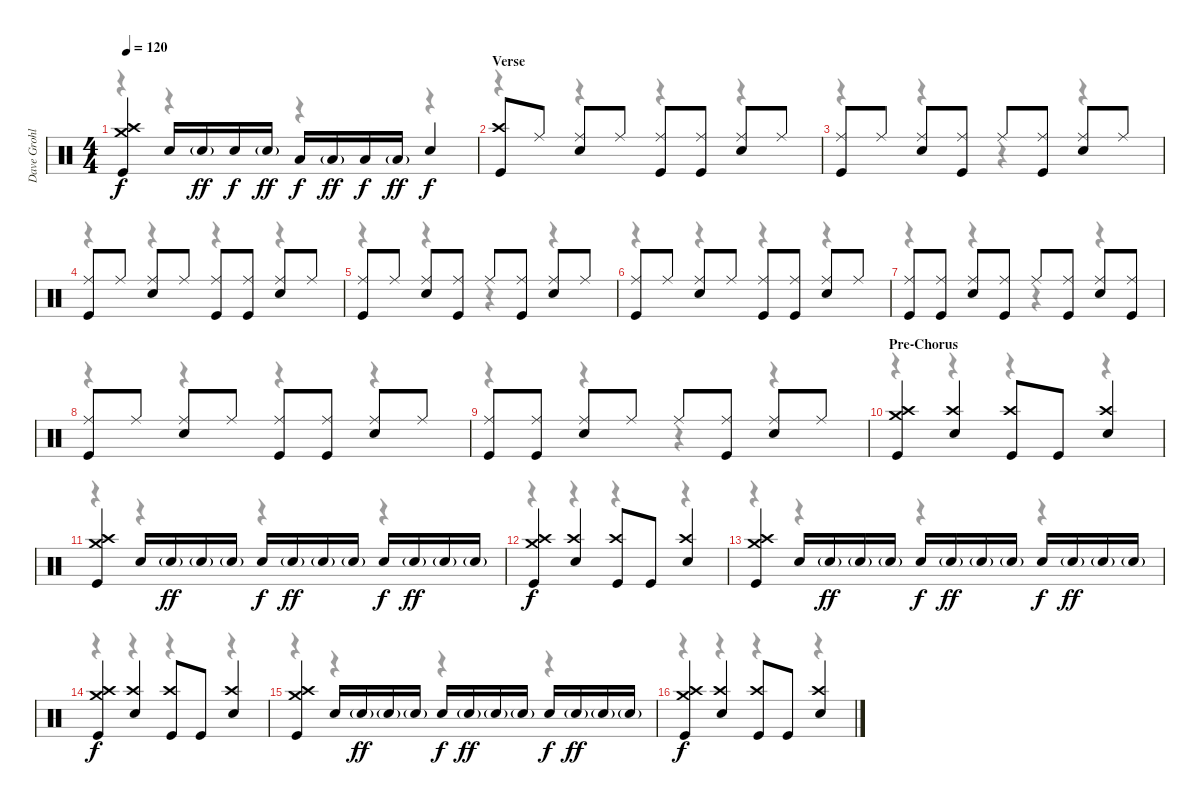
\track ("Dave Grohl" "Dave Grohl") {instrument percussion}
\staff {score}
\articulation defaults
\voice
\ts (4 4)
\tempo 120
\clef neutral
\ks c
("Crash medium (hit)" "Crash high (hit)" "Kick (hit)").4{dy f} "Snare (hit) 2".16 "Snare (hit) 2"{g}.16{dy ff} "Snare (hit) 2".16{dy f} "Snare (hit) 2"{g}.16{dy ff} "Low Tom (hit)".16{dy f} "Low Tom (hit)"{g}.16{dy ff} "Low Tom (hit)".16{dy f} "Low Tom (hit)"{g}.16{dy ff} "Snare (hit) 2".4{dy f} |
\section ("" "Verse")
("Crash high (hit)" "Kick (hit)").8 "Ride (middle)".8 ("Ride (middle)" "Snare (hit) 2").8 "Ride (middle)".8 ("Ride (middle)" "Kick (hit)").8 ("Ride (middle)" "Kick (hit)").8 ("Ride (middle)" "Snare (hit) 2").8 "Ride (middle)".8 |
("Ride (middle)" "Kick (hit)").8 "Ride (middle)".8 ("Ride (middle)" "Snare (hit) 2").8 ("Ride (middle)" "Kick (hit)").8 "Ride (middle)".8 ("Ride (middle)" "Kick (hit)").8 ("Ride (middle)" "Snare (hit) 2").8 "Ride (middle)".8 |
("Ride (middle)" "Kick (hit)").8 "Ride (middle)".8 ("Ride (middle)" "Snare (hit) 2").8 "Ride (middle)".8 ("Ride (middle)" "Kick (hit)").8 ("Ride (middle)" "Kick (hit)").8 ("Ride (middle)" "Snare (hit) 2").8 "Ride (middle)".8 |
("Ride (middle)" "Kick (hit)").8 "Ride (middle)".8 ("Ride (middle)" "Snare (hit) 2").8 ("Ride (middle)" "Kick (hit)").8 "Ride (middle)".8 ("Ride (middle)" "Kick (hit)").8 ("Ride (middle)" "Snare (hit) 2").8 "Ride (middle)".8 |
("Ride (middle)" "Kick (hit)").8 "Ride (middle)".8 ("Ride (middle)" "Snare (hit) 2").8 "Ride (middle)".8 ("Ride (middle)" "Kick (hit)").8 ("Ride (middle)" "Kick (hit)").8 ("Ride (middle)" "Snare (hit) 2").8 "Ride (middle)".8 |
("Ride (middle)" "Kick (hit)").8 ("Ride (middle)" "Kick (hit)").8 ("Ride (middle)" "Snare (hit) 2").8 ("Ride (middle)" "Kick (hit)").8 "Ride (middle)".8 ("Ride (middle)" "Kick (hit)").8 ("Ride (middle)" "Snare (hit) 2").8 ("Ride (middle)" "Kick (hit)").8 |
("Ride (middle)" "Kick (hit)").8 "Ride (middle)".8 ("Ride (middle)" "Snare (hit) 2").8 "Ride (middle)".8 ("Ride (middle)" "Kick (hit)").8 ("Ride (middle)" "Kick (hit)").8 ("Ride (middle)" "Snare (hit) 2").8 "Ride (middle)".8 |
("Ride (middle)" "Kick (hit)").8 ("Ride (middle)" "Kick (hit)").8 ("Ride (middle)" "Snare (hit) 2").8 "Ride (middle)".8 "Ride (middle)".8 ("Ride (middle)" "Kick (hit)").8 ("Ride (middle)" "Snare (hit) 2").8 "Ride (middle)".8 |
\section ("" "Pre-Chorus")
("Crash medium (hit)" "Crash high (hit)" "Kick (hit)").4 ("Crash high (hit)" "Snare (hit) 2").4 ("Crash high (hit)" "Kick (hit)").8 "Kick (hit)".8 ("Crash high (hit)" "Snare (hit) 2").4 |
("Crash medium (hit)" "Crash high (hit)" "Kick (hit)").4 "Snare (hit) 2".16 "Snare (hit) 2"{g}.16{dy ff} "Snare (hit) 2"{g}.16 "Snare (hit) 2"{g}.16 "Snare (hit) 2".16{dy f} "Snare (hit) 2"{g}.16{dy ff} "Snare (hit) 2"{g}.16 "Snare (hit) 2"{g}.16 "Snare (hit) 2".16{dy f} "Snare (hit) 2"{g}.16{dy ff} "Snare (hit) 2"{g}.16 "Snare (hit) 2"{g}.16 |
("Crash medium (hit)" "Crash high (hit)" "Kick (hit)").4{dy f} ("Crash high (hit)" "Snare (hit) 2").4 ("Crash high (hit)" "Kick (hit)").8 "Kick (hit)".8 ("Crash high (hit)" "Snare (hit) 2").4 |
("Crash medium (hit)" "Crash high (hit)" "Kick (hit)").4 "Snare (hit) 2".16 "Snare (hit) 2"{g}.16{dy ff} "Snare (hit) 2"{g}.16 "Snare (hit) 2"{g}.16 "Snare (hit) 2".16{dy f} "Snare (hit) 2"{g}.16{dy ff} "Snare (hit) 2"{g}.16 "Snare (hit) 2"{g}.16 "Snare (hit) 2".16{dy f} "Snare (hit) 2"{g}.16{dy ff} "Snare (hit) 2"{g}.16 "Snare (hit) 2"{g}.16 |
("Crash medium (hit)" "Crash high (hit)" "Kick (hit)").4{dy f} ("Crash high (hit)" "Snare (hit) 2").4 ("Crash high (hit)" "Kick (hit)").8 "Kick (hit)".8 ("Crash high (hit)" "Snare (hit) 2").4 |
("Crash medium (hit)" "Crash high (hit)" "Kick (hit)").4 "Snare (hit) 2".16 "Snare (hit) 2"{g}.16{dy ff} "Snare (hit) 2"{g}.16 "Snare (hit) 2"{g}.16 "Snare (hit) 2".16{dy f} "Snare (hit) 2"{g}.16{dy ff} "Snare (hit) 2"{g}.16 "Snare (hit) 2"{g}.16 "Snare (hit) 2".16{dy f} "Snare (hit) 2"{g}.16{dy ff} "Snare (hit) 2"{g}.16 "Snare (hit) 2"{g}.16 |
("Crash medium (hit)" "Crash high (hit)" "Kick (hit)").4{dy f} ("Crash high (hit)" "Snare (hit) 2").4 ("Crash high (hit)" "Kick (hit)").8 "Kick (hit)".8 ("Crash high (hit)" "Snare (hit) 2").4
\voice
\clef neutral
\ottava regular
\simile none
\ks c
r.4{dy f} r.4 r.4 r.4 |
r.4 r.4 r.4 r.4 |
r.4 r.4 r.4 r.4 |
r.4 r.4 r.4 r.4 |
r.4 r.4 r.4 r.4 |
r.4 r.4 r.4 r.4 |
r.4 r.4 r.4 r.4 |
r.4 r.4 r.4 r.4 |
r.4 r.4 r.4 r.4 |
r.4 r.4 r.4 r.4 |
r.4 r.4 r.4 r.4 |
r.4 r.4 r.4 r.4 |
r.4 r.4 r.4 r.4 |
r.4 r.4 r.4 r.4 |
r.4 r.4 r.4 r.4 |
r.4 r.4 r.4 r.4
